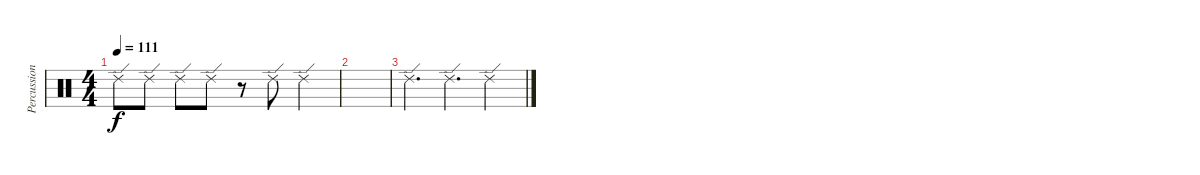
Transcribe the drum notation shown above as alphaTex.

\track ("Percussion" "Percussion") {instrument percussion}
\staff {score}
\articulation defaults
\ts (4 4)
\tempo 111
\clef neutral
\ks c "Ride (edge) 2".8{dy f} "Ride (edge) 2".8 "Ride (edge) 2".8 "Ride (edge) 2".8
r.8 "Ride (edge) 2".8 "Ride (edge) 2".4 |
|
"Ride (edge) 2".4{d} "Ride (edge) 2".4{d} "Ride (edge) 2".4
